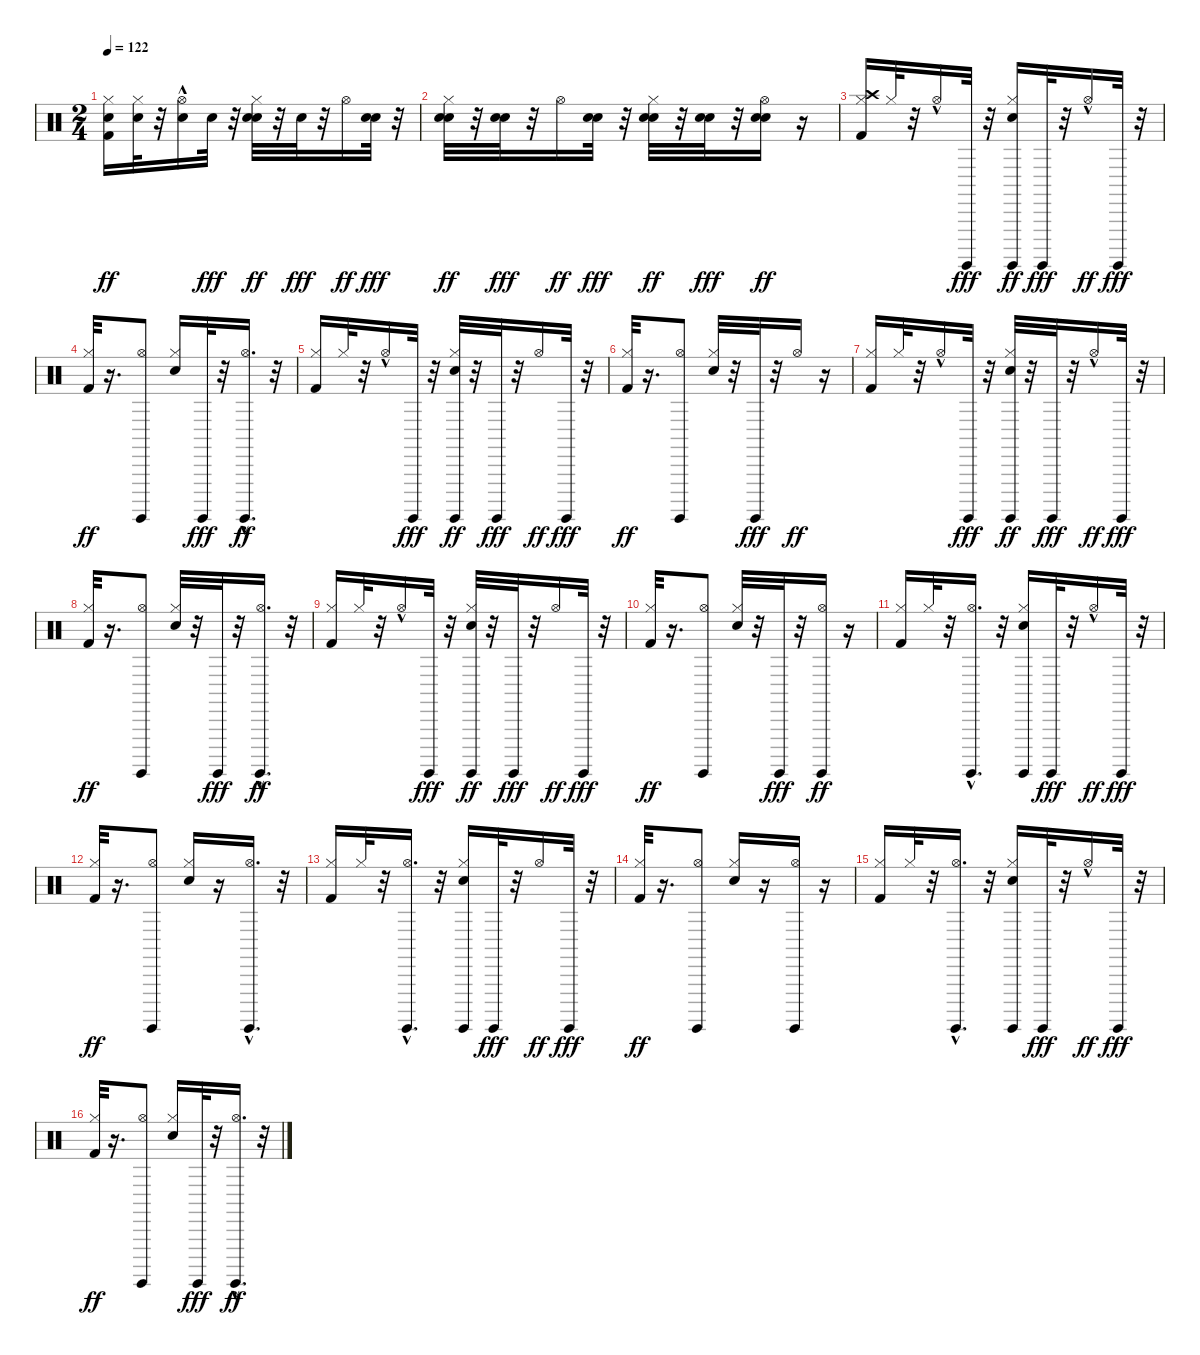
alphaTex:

\track "" {instrument percussion}
\staff {score}
\articulation defaults
\ts (2 4)
\tempo 122
\clef neutral
\ks c
("Hand Clap (hit)" "Kick (hit) 2" "Hi-Hat (closed)").16{dy ff} ("Hand Clap (hit)" "Hi-Hat (closed)").32 r.32 ("Hand Clap (hit)" "Hi-Hat (open)"{hac}).16 "Hand Clap (hit)".32{dy fff} r.32 ("Hand Clap (hit)" "Snare (hit) 2" "Hi-Hat (closed)").32{dy ff} r.32 "Hand Clap (hit)".32{dy fff} r.32 "Hi-Hat (open)".16{dy ff} ("Hand Clap (hit)" "Snare (hit) 2").32{dy fff} r.32 |
("Hand Clap (hit)" "Snare (hit) 2" "Hi-Hat (closed)").32{dy ff} r.32 ("Hand Clap (hit)" "Snare (hit) 2").32{dy fff} r.32 "Hi-Hat (open)".16{dy ff} ("Hand Clap (hit)" "Snare (hit) 2").32{dy fff} r.32 ("Hand Clap (hit)" "Snare (hit) 2" "Hi-Hat (closed)").32{dy ff} r.32 ("Hand Clap (hit)" "Snare (hit) 2").32{dy fff} r.32 ("Hand Clap (hit)" "Snare (hit) 2" "Hi-Hat (open)").16{dy ff} r.16 |
("Kick (hit) 2" "Crash high (hit)" "Hi-Hat (closed)").16 "Hi-Hat (closed)".32 r.32 "Hi-Hat (open)"{hac}.16 "Surdo (hit)".32{dy fff} r.32 ("Surdo (hit)" "Snare (hit) 2" "Hi-Hat (closed)").16{dy ff} "Surdo (hit)".32{dy fff} r.32 "Hi-Hat (open)"{hac}.16{dy ff} "Surdo (hit)".32{dy fff} r.32 |
("Kick (hit) 2" "Hi-Hat (closed)").32{dy ff} r.16{d} ("Surdo (hit)" "Hi-Hat (open)").8 ("Snare (hit) 2" "Hi-Hat (closed)").16 "Surdo (hit)".32{dy fff} r.32 ("Surdo (hit)" "Hi-Hat (open)"{hac}).16{d dy ff} r.32 |
("Kick (hit) 2" "Hi-Hat (closed)").16 "Hi-Hat (closed)".32 r.32 "Hi-Hat (open)"{hac}.16 "Surdo (hit)".32{dy fff} r.32 ("Surdo (hit)" "Snare (hit) 2" "Hi-Hat (closed)").32{dy ff} r.32 "Surdo (hit)".32{dy fff} r.32 "Hi-Hat (open)".16{dy ff} "Surdo (hit)".32{dy fff} r.32 |
("Kick (hit) 2" "Hi-Hat (closed)").32{dy ff} r.16{d} ("Surdo (hit)" "Hi-Hat (open)").8 ("Snare (hit) 2" "Hi-Hat (closed)").32 r.32 "Surdo (hit)".32{dy fff} r.32 "Hi-Hat (open)".16{dy ff} r.16 |
("Kick (hit) 2" "Hi-Hat (closed)").16 "Hi-Hat (closed)".32 r.32 "Hi-Hat (open)"{hac}.16 "Surdo (hit)".32{dy fff} r.32 ("Snare (hit) 2" "Surdo (hit)" "Hi-Hat (closed)").32{dy ff} r.32 "Surdo (hit)".32{dy fff} r.32 "Hi-Hat (open)"{hac}.16{dy ff} "Surdo (hit)".32{dy fff} r.32 |
("Kick (hit) 2" "Hi-Hat (closed)").32{dy ff} r.16{d} ("Surdo (hit)" "Hi-Hat (open)").8 ("Snare (hit) 2" "Hi-Hat (closed)").32 r.32 "Surdo (hit)".32{dy fff} r.32 ("Surdo (hit)" "Hi-Hat (open)"{hac}).16{d dy ff} r.32 |
("Kick (hit) 2" "Hi-Hat (closed)").16 "Hi-Hat (closed)".32 r.32 "Hi-Hat (open)"{hac}.16 "Surdo (hit)".32{dy fff} r.32 ("Surdo (hit)" "Snare (hit) 2" "Hi-Hat (closed)").32{dy ff} r.32 "Surdo (hit)".32{dy fff} r.32 "Hi-Hat (open)".16{dy ff} "Surdo (hit)".32{dy fff} r.32 |
("Kick (hit) 2" "Hi-Hat (closed)").32{dy ff} r.16{d} ("Surdo (hit)" "Hi-Hat (open)").8 ("Snare (hit) 2" "Hi-Hat (closed)").32 r.32 "Surdo (hit)".32{dy fff} r.32 ("Surdo (hit)" "Hi-Hat (open)").16{dy ff} r.16 |
("Kick (hit) 2" "Hi-Hat (closed)").16 "Hi-Hat (closed)".32 r.32 ("Surdo (hit)" "Hi-Hat (open)"{hac}).16{d} r.32 ("Surdo (hit)" "Snare (hit) 2" "Hi-Hat (closed)").16 "Surdo (hit)".32{dy fff} r.32 "Hi-Hat (open)"{hac}.16{dy ff} "Surdo (hit)".32{dy fff} r.32 |
("Kick (hit) 2" "Hi-Hat (closed)").32{dy ff} r.16{d} ("Surdo (hit)" "Hi-Hat (open)").8 ("Snare (hit) 2" "Hi-Hat (closed)").16 r.16 ("Surdo (hit)" "Hi-Hat (open)"{hac}).16{d} r.32 |
("Kick (hit) 2" "Hi-Hat (closed)").16 "Hi-Hat (closed)".32 r.32 ("Surdo (hit)" "Hi-Hat (open)"{hac}).16{d} r.32 ("Surdo (hit)" "Snare (hit) 2" "Hi-Hat (closed)").16 "Surdo (hit)".32{dy fff} r.32 "Hi-Hat (open)".16{dy ff} "Surdo (hit)".32{dy fff} r.32 |
("Kick (hit) 2" "Hi-Hat (closed)").32{dy ff} r.16{d} ("Surdo (hit)" "Hi-Hat (open)").8 ("Snare (hit) 2" "Hi-Hat (closed)").16 r.16 ("Surdo (hit)" "Hi-Hat (open)").16 r.16 |
("Kick (hit) 2" "Hi-Hat (closed)").16 "Hi-Hat (closed)".32 r.32 ("Surdo (hit)" "Hi-Hat (open)"{hac}).16{d} r.32 ("Snare (hit) 2" "Surdo (hit)" "Hi-Hat (closed)").16 "Surdo (hit)".32{dy fff} r.32 "Hi-Hat (open)"{hac}.16{dy ff} "Surdo (hit)".32{dy fff} r.32 |
("Kick (hit) 2" "Hi-Hat (closed)").32{dy ff} r.16{d} ("Surdo (hit)" "Hi-Hat (open)").8 ("Snare (hit) 2" "Hi-Hat (closed)").16 "Surdo (hit)".32{dy fff} r.32 ("Surdo (hit)" "Hi-Hat (open)"{hac}).16{d dy ff} r.32
